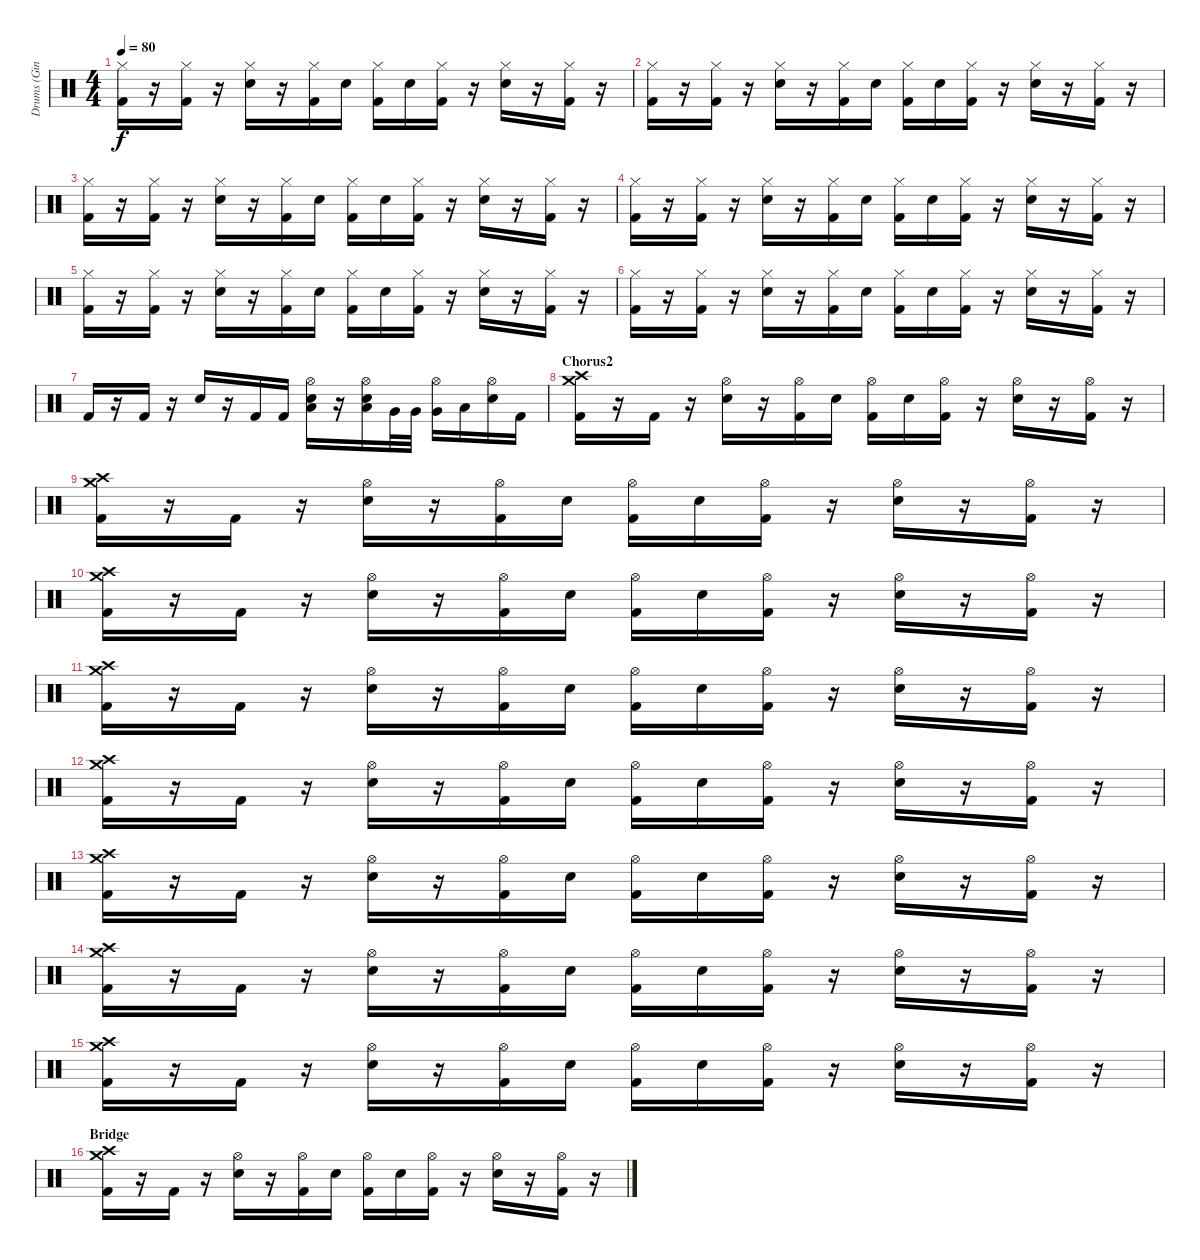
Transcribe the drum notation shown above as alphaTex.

\track ("Drums (Ginger Fish)" "Drums (Gin") {instrument percussion}
\staff {score}
\articulation defaults
\ts (4 4)
\tempo 80
\clef neutral
\ks c
("Hi-Hat (closed)" "Kick (hit) 2").16{dy f} r.16 ("Hi-Hat (closed)" "Kick (hit) 2").16 r.16 ("Hi-Hat (closed)" "Electric Snare (hit)").16 r.16 ("Hi-Hat (closed)" "Kick (hit) 2").16 "Electric Snare (hit)".16 ("Hi-Hat (closed)" "Kick (hit) 2").16 "Electric Snare (hit)".16 ("Hi-Hat (closed)" "Kick (hit) 2").16 r.16 ("Hi-Hat (closed)" "Electric Snare (hit)").16 r.16 ("Hi-Hat (closed)" "Kick (hit) 2").16 r.16 |
("Hi-Hat (closed)" "Kick (hit) 2").16 r.16 ("Hi-Hat (closed)" "Kick (hit) 2").16 r.16 ("Hi-Hat (closed)" "Electric Snare (hit)").16 r.16 ("Hi-Hat (closed)" "Kick (hit) 2").16 "Electric Snare (hit)".16 ("Hi-Hat (closed)" "Kick (hit) 2").16 "Electric Snare (hit)".16 ("Hi-Hat (closed)" "Kick (hit) 2").16 r.16 ("Hi-Hat (closed)" "Electric Snare (hit)").16 r.16 ("Hi-Hat (closed)" "Kick (hit) 2").16 r.16 |
("Hi-Hat (closed)" "Kick (hit) 2").16 r.16 ("Hi-Hat (closed)" "Kick (hit) 2").16 r.16 ("Hi-Hat (closed)" "Electric Snare (hit)").16 r.16 ("Hi-Hat (closed)" "Kick (hit) 2").16 "Electric Snare (hit)".16 ("Hi-Hat (closed)" "Kick (hit) 2").16 "Electric Snare (hit)".16 ("Hi-Hat (closed)" "Kick (hit) 2").16 r.16 ("Hi-Hat (closed)" "Electric Snare (hit)").16 r.16 ("Hi-Hat (closed)" "Kick (hit) 2").16 r.16 |
("Hi-Hat (closed)" "Kick (hit) 2").16 r.16 ("Hi-Hat (closed)" "Kick (hit) 2").16 r.16 ("Hi-Hat (closed)" "Electric Snare (hit)").16 r.16 ("Hi-Hat (closed)" "Kick (hit) 2").16 "Electric Snare (hit)".16 ("Hi-Hat (closed)" "Kick (hit) 2").16 "Electric Snare (hit)".16 ("Hi-Hat (closed)" "Kick (hit) 2").16 r.16 ("Hi-Hat (closed)" "Electric Snare (hit)").16 r.16 ("Hi-Hat (closed)" "Kick (hit) 2").16 r.16 |
("Hi-Hat (closed)" "Kick (hit) 2").16 r.16 ("Hi-Hat (closed)" "Kick (hit) 2").16 r.16 ("Hi-Hat (closed)" "Electric Snare (hit)").16 r.16 ("Hi-Hat (closed)" "Kick (hit) 2").16 "Electric Snare (hit)".16 ("Hi-Hat (closed)" "Kick (hit) 2").16 "Electric Snare (hit)".16 ("Hi-Hat (closed)" "Kick (hit) 2").16 r.16 ("Hi-Hat (closed)" "Electric Snare (hit)").16 r.16 ("Hi-Hat (closed)" "Kick (hit) 2").16 r.16 |
("Hi-Hat (closed)" "Kick (hit) 2").16 r.16 ("Hi-Hat (closed)" "Kick (hit) 2").16 r.16 ("Hi-Hat (closed)" "Electric Snare (hit)").16 r.16 ("Hi-Hat (closed)" "Kick (hit) 2").16 "Electric Snare (hit)".16 ("Hi-Hat (closed)" "Kick (hit) 2").16 "Electric Snare (hit)".16 ("Hi-Hat (closed)" "Kick (hit) 2").16 r.16 ("Hi-Hat (closed)" "Electric Snare (hit)").16 r.16 ("Hi-Hat (closed)" "Kick (hit) 2").16 r.16 |
"Kick (hit) 2".16 r.16 "Kick (hit) 2".16 r.16 "Electric Snare (hit)".16 r.16 "Kick (hit) 2".16 "Kick (hit) 2".16 ("Hi-Hat (open)" "Snare (hit) 2" "Low Tom (hit)").16 r.16 ("Hi-Hat (open)" "Snare (hit) 2" "Low Floor Tom (hit)").16 "Very Low Tom (hit)".32 "Very Low Tom (hit)".32 ("Hi-Hat (open)" "Very Low Tom (hit)").16 "Low Floor Tom (hit)".16 ("Hi-Hat (open)" "Snare (hit) 2").16 "Kick (hit) 2".16 |
\section ("" "Chorus2")
("Crash high (hit)" "Crash medium (hit)" "Kick (hit) 2").16 r.16 "Kick (hit) 2".16 r.16 ("Hi-Hat (open)" "Electric Snare (hit)").16 r.16 ("Hi-Hat (open)" "Kick (hit) 2").16 "Electric Snare (hit)".16 ("Hi-Hat (open)" "Kick (hit) 2").16 "Electric Snare (hit)".16 ("Hi-Hat (open)" "Kick (hit) 2").16 r.16 ("Hi-Hat (open)" "Electric Snare (hit)").16 r.16 ("Hi-Hat (open)" "Kick (hit) 2").16 r.16 |
("Crash high (hit)" "Crash medium (hit)" "Kick (hit) 2").16 r.16 "Kick (hit) 2".16 r.16 ("Hi-Hat (open)" "Electric Snare (hit)").16 r.16 ("Hi-Hat (open)" "Kick (hit) 2").16 "Electric Snare (hit)".16 ("Hi-Hat (open)" "Kick (hit) 2").16 "Electric Snare (hit)".16 ("Hi-Hat (open)" "Kick (hit) 2").16 r.16 ("Hi-Hat (open)" "Electric Snare (hit)").16 r.16 ("Hi-Hat (open)" "Kick (hit) 2").16 r.16 |
("Crash high (hit)" "Crash medium (hit)" "Kick (hit) 2").16 r.16 "Kick (hit) 2".16 r.16 ("Hi-Hat (open)" "Electric Snare (hit)").16 r.16 ("Hi-Hat (open)" "Kick (hit) 2").16 "Electric Snare (hit)".16 ("Hi-Hat (open)" "Kick (hit) 2").16 "Electric Snare (hit)".16 ("Hi-Hat (open)" "Kick (hit) 2").16 r.16 ("Hi-Hat (open)" "Electric Snare (hit)").16 r.16 ("Hi-Hat (open)" "Kick (hit) 2").16 r.16 |
("Crash high (hit)" "Crash medium (hit)" "Kick (hit) 2").16 r.16 "Kick (hit) 2".16 r.16 ("Hi-Hat (open)" "Electric Snare (hit)").16 r.16 ("Hi-Hat (open)" "Kick (hit) 2").16 "Electric Snare (hit)".16 ("Hi-Hat (open)" "Kick (hit) 2").16 "Electric Snare (hit)".16 ("Hi-Hat (open)" "Kick (hit) 2").16 r.16 ("Hi-Hat (open)" "Electric Snare (hit)").16 r.16 ("Hi-Hat (open)" "Kick (hit) 2").16 r.16 |
("Crash high (hit)" "Crash medium (hit)" "Kick (hit) 2").16 r.16 "Kick (hit) 2".16 r.16 ("Hi-Hat (open)" "Electric Snare (hit)").16 r.16 ("Hi-Hat (open)" "Kick (hit) 2").16 "Electric Snare (hit)".16 ("Hi-Hat (open)" "Kick (hit) 2").16 "Electric Snare (hit)".16 ("Hi-Hat (open)" "Kick (hit) 2").16 r.16 ("Hi-Hat (open)" "Electric Snare (hit)").16 r.16 ("Hi-Hat (open)" "Kick (hit) 2").16 r.16 |
("Crash high (hit)" "Crash medium (hit)" "Kick (hit) 2").16 r.16 "Kick (hit) 2".16 r.16 ("Hi-Hat (open)" "Electric Snare (hit)").16 r.16 ("Hi-Hat (open)" "Kick (hit) 2").16 "Electric Snare (hit)".16 ("Hi-Hat (open)" "Kick (hit) 2").16 "Electric Snare (hit)".16 ("Hi-Hat (open)" "Kick (hit) 2").16 r.16 ("Hi-Hat (open)" "Electric Snare (hit)").16 r.16 ("Hi-Hat (open)" "Kick (hit) 2").16 r.16 |
("Crash high (hit)" "Crash medium (hit)" "Kick (hit) 2").16 r.16 "Kick (hit) 2".16 r.16 ("Hi-Hat (open)" "Electric Snare (hit)").16 r.16 ("Hi-Hat (open)" "Kick (hit) 2").16 "Electric Snare (hit)".16 ("Hi-Hat (open)" "Kick (hit) 2").16 "Electric Snare (hit)".16 ("Hi-Hat (open)" "Kick (hit) 2").16 r.16 ("Hi-Hat (open)" "Electric Snare (hit)").16 r.16 ("Hi-Hat (open)" "Kick (hit) 2").16 r.16 |
("Crash high (hit)" "Crash medium (hit)" "Kick (hit) 2").16 r.16 "Kick (hit) 2".16 r.16 ("Hi-Hat (open)" "Electric Snare (hit)").16 r.16 ("Hi-Hat (open)" "Kick (hit) 2").16 "Electric Snare (hit)".16 ("Hi-Hat (open)" "Kick (hit) 2").16 "Electric Snare (hit)".16 ("Hi-Hat (open)" "Kick (hit) 2").16 r.16 ("Hi-Hat (open)" "Electric Snare (hit)").16 r.16 ("Hi-Hat (open)" "Kick (hit) 2").16 r.16 |
\section ("" "Bridge")
("Crash high (hit)" "Crash medium (hit)" "Kick (hit) 2").16 r.16 "Kick (hit) 2".16 r.16 ("Hi-Hat (open)" "Electric Snare (hit)").16 r.16 ("Hi-Hat (open)" "Kick (hit) 2").16 "Electric Snare (hit)".16 ("Hi-Hat (open)" "Kick (hit) 2").16 "Electric Snare (hit)".16 ("Hi-Hat (open)" "Kick (hit) 2").16 r.16 ("Hi-Hat (open)" "Electric Snare (hit)").16 r.16 ("Hi-Hat (open)" "Kick (hit) 2").16 r.16
